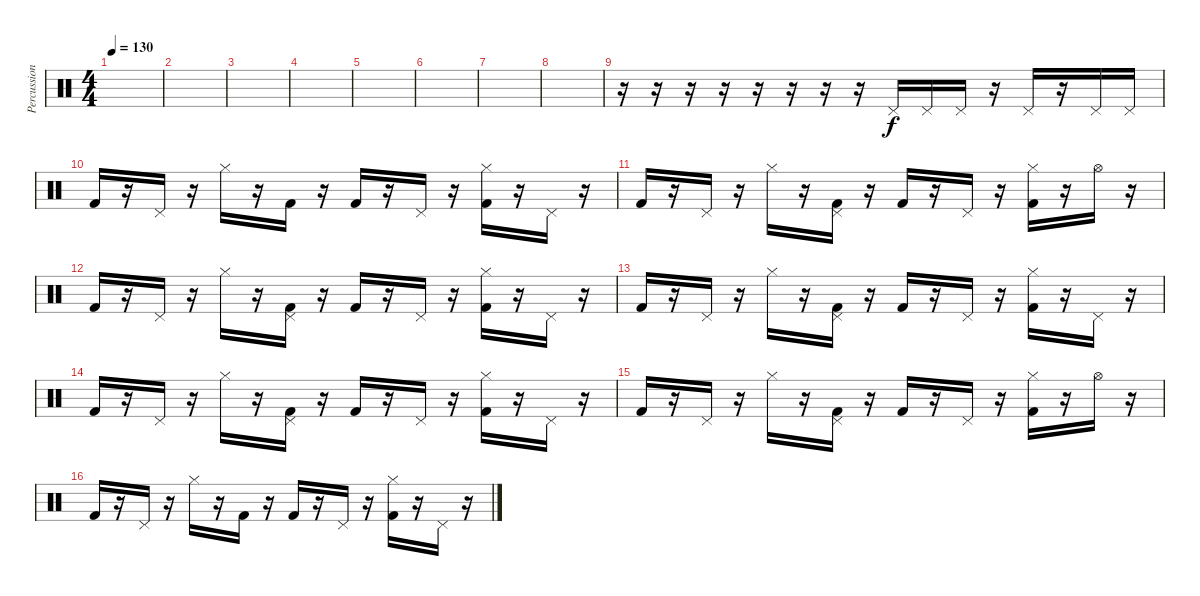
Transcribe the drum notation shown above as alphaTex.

\track ("Percussion" "Percussion") {instrument percussion}
\staff {score}
\articulation defaults
\ts (4 4)
\tempo 130
\clef neutral
\ks c
|
|
|
|
|
|
|
|
r.16 r.16 r.16 r.16 r.16 r.16 r.16 r.16 "Pedal Hi-Hat (hit)".16 "Pedal Hi-Hat (hit)".16 "Pedal Hi-Hat (hit)".16 r.16 "Pedal Hi-Hat (hit)".16 r.16 "Pedal Hi-Hat (hit)".16 "Pedal Hi-Hat (hit)".16 |
"Kick (hit) 2".16 r.16 "Pedal Hi-Hat (hit)".16 r.16 "Hi-Hat (closed)".16 r.16 "Kick (hit) 2".16 r.16 "Kick (hit) 2".16 r.16 "Pedal Hi-Hat (hit)".16 r.16 ("Kick (hit) 2" "Hi-Hat (closed)").16 r.16 "Pedal Hi-Hat (hit)".16 r.16 |
"Kick (hit) 2".16 r.16 "Pedal Hi-Hat (hit)".16 r.16 "Hi-Hat (closed)".16 r.16 ("Kick (hit) 2" "Pedal Hi-Hat (hit)").16 r.16 "Kick (hit) 2".16 r.16 "Pedal Hi-Hat (hit)".16 r.16 ("Kick (hit) 2" "Hi-Hat (closed)").16 r.16 "Hi-Hat (open)".16 r.16 |
"Kick (hit) 2".16 r.16 "Pedal Hi-Hat (hit)".16 r.16 "Hi-Hat (closed)".16 r.16 ("Kick (hit) 2" "Pedal Hi-Hat (hit)").16 r.16 "Kick (hit) 2".16 r.16 "Pedal Hi-Hat (hit)".16 r.16 ("Kick (hit) 2" "Hi-Hat (closed)").16 r.16 "Pedal Hi-Hat (hit)".16 r.16 |
"Kick (hit) 2".16 r.16 "Pedal Hi-Hat (hit)".16 r.16 "Hi-Hat (closed)".16 r.16 ("Kick (hit) 2" "Pedal Hi-Hat (hit)").16 r.16 "Kick (hit) 2".16 r.16 "Pedal Hi-Hat (hit)".16 r.16 ("Kick (hit) 2" "Hi-Hat (closed)").16 r.16 "Pedal Hi-Hat (hit)".16 r.16 |
"Kick (hit) 2".16 r.16 "Pedal Hi-Hat (hit)".16 r.16 "Hi-Hat (closed)".16 r.16 ("Kick (hit) 2" "Pedal Hi-Hat (hit)").16 r.16 "Kick (hit) 2".16 r.16 "Pedal Hi-Hat (hit)".16 r.16 ("Kick (hit) 2" "Hi-Hat (closed)").16 r.16 "Pedal Hi-Hat (hit)".16 r.16 |
"Kick (hit) 2".16 r.16 "Pedal Hi-Hat (hit)".16 r.16 "Hi-Hat (closed)".16 r.16 ("Kick (hit) 2" "Pedal Hi-Hat (hit)").16 r.16 "Kick (hit) 2".16 r.16 "Pedal Hi-Hat (hit)".16 r.16 ("Kick (hit) 2" "Hi-Hat (closed)").16 r.16 "Hi-Hat (open)".16 r.16 |
"Kick (hit) 2".16 r.16 "Pedal Hi-Hat (hit)".16 r.16 "Hi-Hat (closed)".16 r.16 "Kick (hit) 2".16 r.16 "Kick (hit) 2".16 r.16 "Pedal Hi-Hat (hit)".16 r.16 ("Kick (hit) 2" "Hi-Hat (closed)").16 r.16 "Pedal Hi-Hat (hit)".16 r.16
